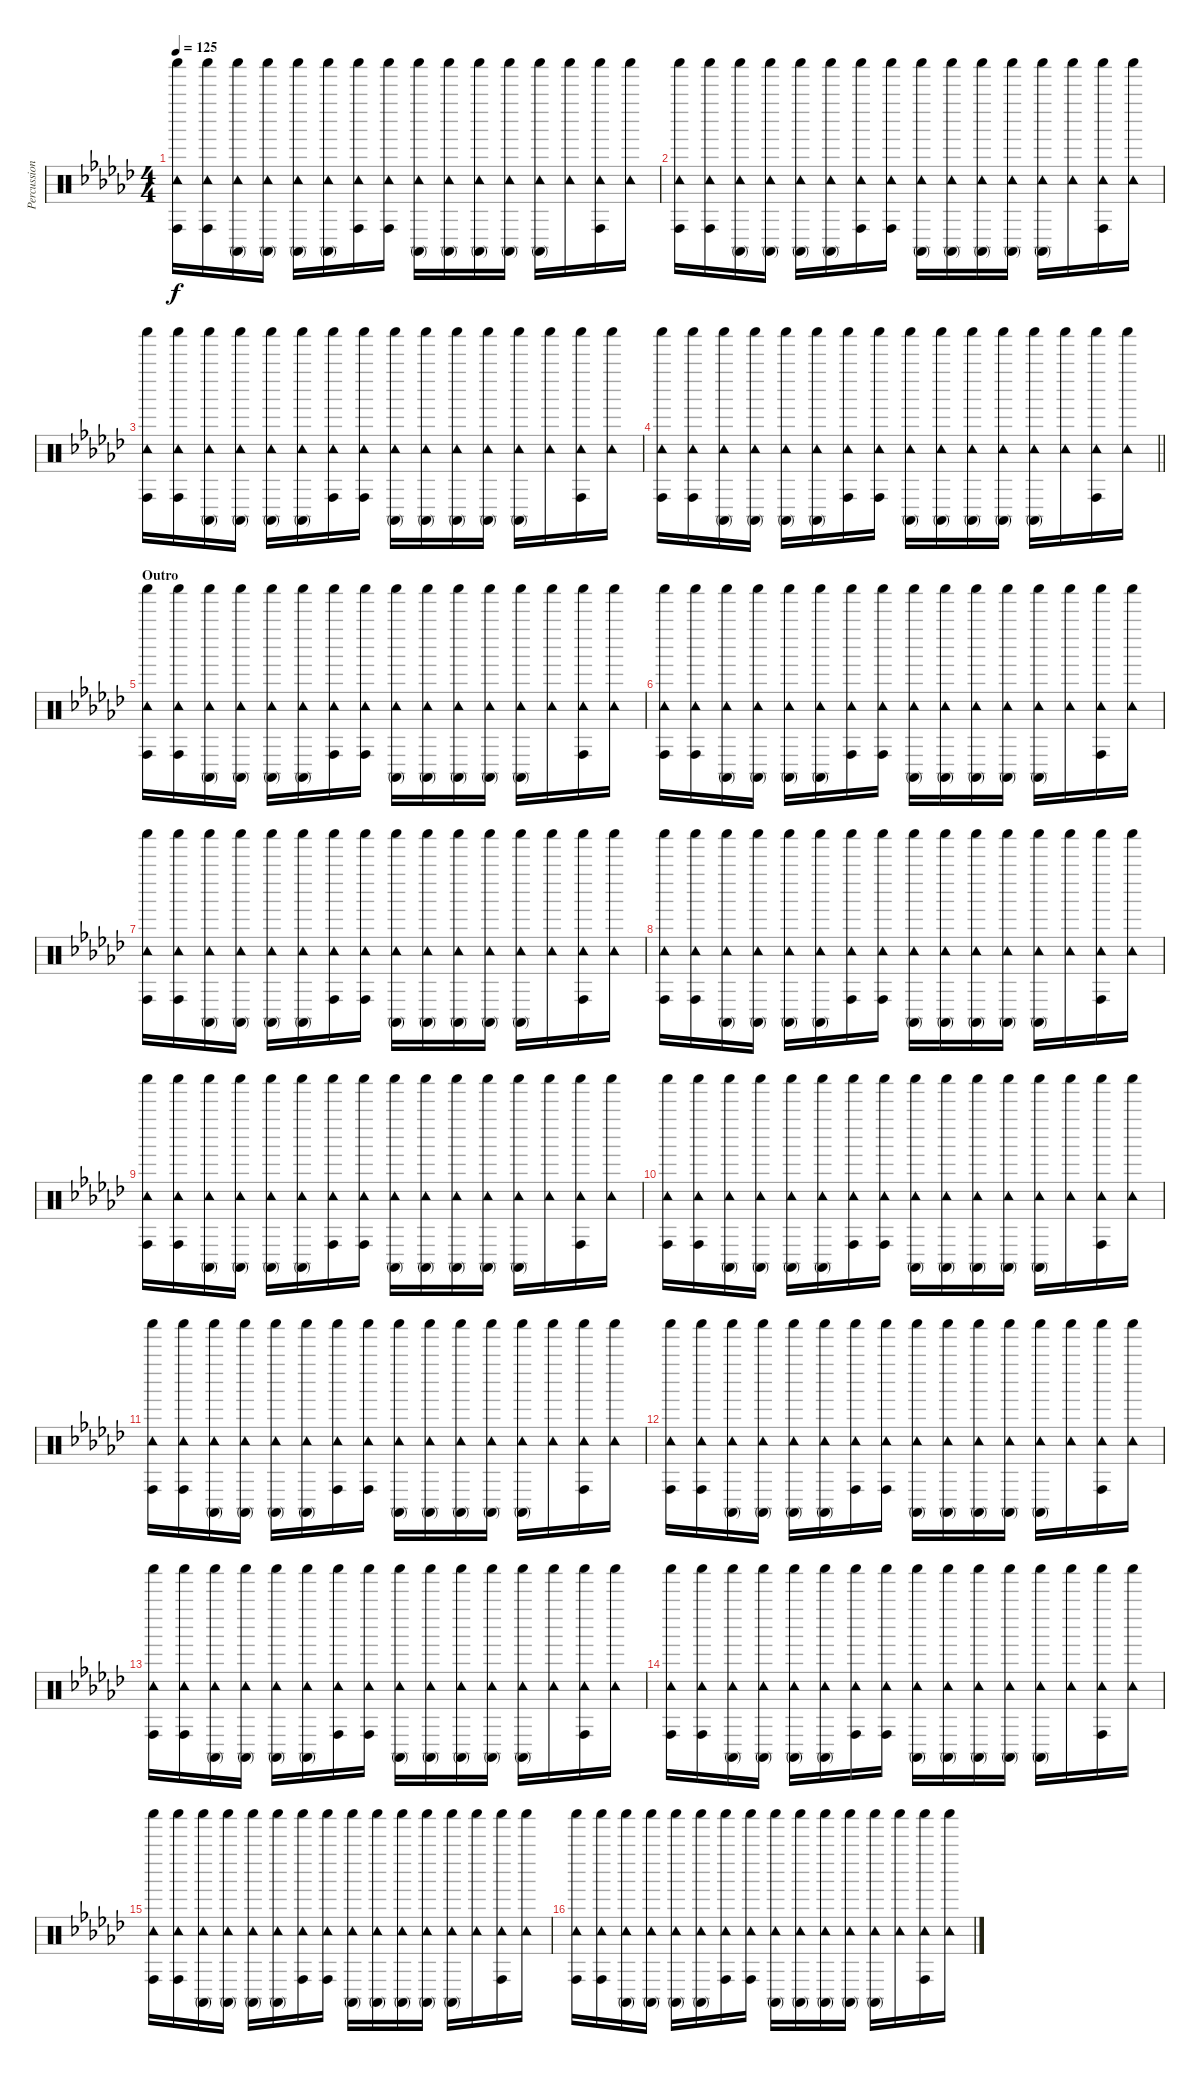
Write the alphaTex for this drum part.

\track ("Percussion" "Percussion") {instrument percussion}
\staff {score}
\articulation defaults
\ts (4 4)
\tempo 125
\clef neutral
\ks gb
("Shaker (hit)" "Tambourine (hit)" "Conga high (hit)").16{dy f} ("Shaker (hit)" "Tambourine (hit)" "Conga high (hit)").16 ("Shaker (hit)" "Tambourine (hit)" "Conga high (mute)").16 ("Shaker (hit)" "Tambourine (hit)" "Conga high (mute)").16 ("Shaker (hit)" "Tambourine (hit)" "Conga high (mute)").16 ("Shaker (hit)" "Tambourine (hit)" "Conga high (mute)").16 ("Shaker (hit)" "Tambourine (hit)" "Conga high (hit)").16 ("Shaker (hit)" "Tambourine (hit)" "Conga high (hit)").16 ("Shaker (hit)" "Tambourine (hit)" "Conga high (mute)").16 ("Shaker (hit)" "Tambourine (hit)" "Conga high (mute)").16 ("Shaker (hit)" "Tambourine (hit)" "Conga high (mute)").16 ("Shaker (hit)" "Tambourine (hit)" "Conga high (mute)").16 ("Shaker (hit)" "Tambourine (hit)" "Conga high (mute)").16 ("Shaker (hit)" "Tambourine (hit)").16 ("Shaker (hit)" "Tambourine (hit)" "Conga high (hit)").16 ("Shaker (hit)" "Tambourine (hit)").16 |
("Shaker (hit)" "Tambourine (hit)" "Conga high (hit)").16 ("Shaker (hit)" "Tambourine (hit)" "Conga high (hit)").16 ("Shaker (hit)" "Tambourine (hit)" "Conga high (mute)").16 ("Shaker (hit)" "Tambourine (hit)" "Conga high (mute)").16 ("Shaker (hit)" "Tambourine (hit)" "Conga high (mute)").16 ("Shaker (hit)" "Tambourine (hit)" "Conga high (mute)").16 ("Shaker (hit)" "Tambourine (hit)" "Conga high (hit)").16 ("Shaker (hit)" "Tambourine (hit)" "Conga high (hit)").16 ("Shaker (hit)" "Tambourine (hit)" "Conga high (mute)").16 ("Shaker (hit)" "Tambourine (hit)" "Conga high (mute)").16 ("Shaker (hit)" "Tambourine (hit)" "Conga high (mute)").16 ("Shaker (hit)" "Tambourine (hit)" "Conga high (mute)").16 ("Shaker (hit)" "Tambourine (hit)" "Conga high (mute)").16 ("Shaker (hit)" "Tambourine (hit)").16 ("Shaker (hit)" "Tambourine (hit)" "Conga high (hit)").16 ("Shaker (hit)" "Tambourine (hit)").16 |
("Shaker (hit)" "Tambourine (hit)" "Conga high (hit)").16 ("Shaker (hit)" "Tambourine (hit)" "Conga high (hit)").16 ("Shaker (hit)" "Tambourine (hit)" "Conga high (mute)").16 ("Shaker (hit)" "Tambourine (hit)" "Conga high (mute)").16 ("Shaker (hit)" "Tambourine (hit)" "Conga high (mute)").16 ("Shaker (hit)" "Tambourine (hit)" "Conga high (mute)").16 ("Shaker (hit)" "Tambourine (hit)" "Conga high (hit)").16 ("Shaker (hit)" "Tambourine (hit)" "Conga high (hit)").16 ("Shaker (hit)" "Tambourine (hit)" "Conga high (mute)").16 ("Shaker (hit)" "Tambourine (hit)" "Conga high (mute)").16 ("Shaker (hit)" "Tambourine (hit)" "Conga high (mute)").16 ("Shaker (hit)" "Tambourine (hit)" "Conga high (mute)").16 ("Shaker (hit)" "Tambourine (hit)" "Conga high (mute)").16 ("Shaker (hit)" "Tambourine (hit)").16 ("Shaker (hit)" "Tambourine (hit)" "Conga high (hit)").16 ("Shaker (hit)" "Tambourine (hit)").16 |
\barLineRight lightlight
("Shaker (hit)" "Tambourine (hit)" "Conga high (hit)").16 ("Shaker (hit)" "Tambourine (hit)" "Conga high (hit)").16 ("Shaker (hit)" "Tambourine (hit)" "Conga high (mute)").16 ("Shaker (hit)" "Tambourine (hit)" "Conga high (mute)").16 ("Shaker (hit)" "Tambourine (hit)" "Conga high (mute)").16 ("Shaker (hit)" "Tambourine (hit)" "Conga high (mute)").16 ("Shaker (hit)" "Tambourine (hit)" "Conga high (hit)").16 ("Shaker (hit)" "Tambourine (hit)" "Conga high (hit)").16 ("Shaker (hit)" "Tambourine (hit)" "Conga high (mute)").16 ("Shaker (hit)" "Tambourine (hit)" "Conga high (mute)").16 ("Shaker (hit)" "Tambourine (hit)" "Conga high (mute)").16 ("Shaker (hit)" "Tambourine (hit)" "Conga high (mute)").16 ("Shaker (hit)" "Tambourine (hit)" "Conga high (mute)").16 ("Shaker (hit)" "Tambourine (hit)").16 ("Shaker (hit)" "Tambourine (hit)" "Conga high (hit)").16 ("Shaker (hit)" "Tambourine (hit)").16 |
\section ("" "Outro")
("Shaker (hit)" "Tambourine (hit)" "Conga high (hit)").16 ("Shaker (hit)" "Tambourine (hit)" "Conga high (hit)").16 ("Shaker (hit)" "Tambourine (hit)" "Conga high (mute)").16 ("Shaker (hit)" "Tambourine (hit)" "Conga high (mute)").16 ("Shaker (hit)" "Tambourine (hit)" "Conga high (mute)").16 ("Shaker (hit)" "Tambourine (hit)" "Conga high (mute)").16 ("Shaker (hit)" "Tambourine (hit)" "Conga high (hit)").16 ("Shaker (hit)" "Tambourine (hit)" "Conga high (hit)").16 ("Shaker (hit)" "Tambourine (hit)" "Conga high (mute)").16 ("Shaker (hit)" "Tambourine (hit)" "Conga high (mute)").16 ("Shaker (hit)" "Tambourine (hit)" "Conga high (mute)").16 ("Shaker (hit)" "Tambourine (hit)" "Conga high (mute)").16 ("Shaker (hit)" "Tambourine (hit)" "Conga high (mute)").16 ("Shaker (hit)" "Tambourine (hit)").16 ("Shaker (hit)" "Tambourine (hit)" "Conga high (hit)").16 ("Shaker (hit)" "Tambourine (hit)").16 |
("Shaker (hit)" "Tambourine (hit)" "Conga high (hit)").16 ("Shaker (hit)" "Tambourine (hit)" "Conga high (hit)").16 ("Shaker (hit)" "Tambourine (hit)" "Conga high (mute)").16 ("Shaker (hit)" "Tambourine (hit)" "Conga high (mute)").16 ("Shaker (hit)" "Tambourine (hit)" "Conga high (mute)").16 ("Shaker (hit)" "Tambourine (hit)" "Conga high (mute)").16 ("Shaker (hit)" "Tambourine (hit)" "Conga high (hit)").16 ("Shaker (hit)" "Tambourine (hit)" "Conga high (hit)").16 ("Shaker (hit)" "Tambourine (hit)" "Conga high (mute)").16 ("Shaker (hit)" "Tambourine (hit)" "Conga high (mute)").16 ("Shaker (hit)" "Tambourine (hit)" "Conga high (mute)").16 ("Shaker (hit)" "Tambourine (hit)" "Conga high (mute)").16 ("Shaker (hit)" "Tambourine (hit)" "Conga high (mute)").16 ("Shaker (hit)" "Tambourine (hit)").16 ("Shaker (hit)" "Tambourine (hit)" "Conga high (hit)").16 ("Shaker (hit)" "Tambourine (hit)").16 |
("Shaker (hit)" "Tambourine (hit)" "Conga high (hit)").16 ("Shaker (hit)" "Tambourine (hit)" "Conga high (hit)").16 ("Shaker (hit)" "Tambourine (hit)" "Conga high (mute)").16 ("Shaker (hit)" "Tambourine (hit)" "Conga high (mute)").16 ("Shaker (hit)" "Tambourine (hit)" "Conga high (mute)").16 ("Shaker (hit)" "Tambourine (hit)" "Conga high (mute)").16 ("Shaker (hit)" "Tambourine (hit)" "Conga high (hit)").16 ("Shaker (hit)" "Tambourine (hit)" "Conga high (hit)").16 ("Shaker (hit)" "Tambourine (hit)" "Conga high (mute)").16 ("Shaker (hit)" "Tambourine (hit)" "Conga high (mute)").16 ("Shaker (hit)" "Tambourine (hit)" "Conga high (mute)").16 ("Shaker (hit)" "Tambourine (hit)" "Conga high (mute)").16 ("Shaker (hit)" "Tambourine (hit)" "Conga high (mute)").16 ("Shaker (hit)" "Tambourine (hit)").16 ("Shaker (hit)" "Tambourine (hit)" "Conga high (hit)").16 ("Shaker (hit)" "Tambourine (hit)").16 |
("Shaker (hit)" "Tambourine (hit)" "Conga high (hit)").16 ("Shaker (hit)" "Tambourine (hit)" "Conga high (hit)").16 ("Shaker (hit)" "Tambourine (hit)" "Conga high (mute)").16 ("Shaker (hit)" "Tambourine (hit)" "Conga high (mute)").16 ("Shaker (hit)" "Tambourine (hit)" "Conga high (mute)").16 ("Shaker (hit)" "Tambourine (hit)" "Conga high (mute)").16 ("Shaker (hit)" "Tambourine (hit)" "Conga high (hit)").16 ("Shaker (hit)" "Tambourine (hit)" "Conga high (hit)").16 ("Shaker (hit)" "Tambourine (hit)" "Conga high (mute)").16 ("Shaker (hit)" "Tambourine (hit)" "Conga high (mute)").16 ("Shaker (hit)" "Tambourine (hit)" "Conga high (mute)").16 ("Shaker (hit)" "Tambourine (hit)" "Conga high (mute)").16 ("Shaker (hit)" "Tambourine (hit)" "Conga high (mute)").16 ("Shaker (hit)" "Tambourine (hit)").16 ("Shaker (hit)" "Tambourine (hit)" "Conga high (hit)").16 ("Shaker (hit)" "Tambourine (hit)").16 |
("Shaker (hit)" "Tambourine (hit)" "Conga high (hit)").16 ("Shaker (hit)" "Tambourine (hit)" "Conga high (hit)").16 ("Shaker (hit)" "Tambourine (hit)" "Conga high (mute)").16 ("Shaker (hit)" "Tambourine (hit)" "Conga high (mute)").16 ("Shaker (hit)" "Tambourine (hit)" "Conga high (mute)").16 ("Shaker (hit)" "Tambourine (hit)" "Conga high (mute)").16 ("Shaker (hit)" "Tambourine (hit)" "Conga high (hit)").16 ("Shaker (hit)" "Tambourine (hit)" "Conga high (hit)").16 ("Shaker (hit)" "Tambourine (hit)" "Conga high (mute)").16 ("Shaker (hit)" "Tambourine (hit)" "Conga high (mute)").16 ("Shaker (hit)" "Tambourine (hit)" "Conga high (mute)").16 ("Shaker (hit)" "Tambourine (hit)" "Conga high (mute)").16 ("Shaker (hit)" "Tambourine (hit)" "Conga high (mute)").16 ("Shaker (hit)" "Tambourine (hit)").16 ("Shaker (hit)" "Tambourine (hit)" "Conga high (hit)").16 ("Shaker (hit)" "Tambourine (hit)").16 |
("Shaker (hit)" "Tambourine (hit)" "Conga high (hit)").16 ("Shaker (hit)" "Tambourine (hit)" "Conga high (hit)").16 ("Shaker (hit)" "Tambourine (hit)" "Conga high (mute)").16 ("Shaker (hit)" "Tambourine (hit)" "Conga high (mute)").16 ("Shaker (hit)" "Tambourine (hit)" "Conga high (mute)").16 ("Shaker (hit)" "Tambourine (hit)" "Conga high (mute)").16 ("Shaker (hit)" "Tambourine (hit)" "Conga high (hit)").16 ("Shaker (hit)" "Tambourine (hit)" "Conga high (hit)").16 ("Shaker (hit)" "Tambourine (hit)" "Conga high (mute)").16 ("Shaker (hit)" "Tambourine (hit)" "Conga high (mute)").16 ("Shaker (hit)" "Tambourine (hit)" "Conga high (mute)").16 ("Shaker (hit)" "Tambourine (hit)" "Conga high (mute)").16 ("Shaker (hit)" "Tambourine (hit)" "Conga high (mute)").16 ("Shaker (hit)" "Tambourine (hit)").16 ("Shaker (hit)" "Tambourine (hit)" "Conga high (hit)").16 ("Shaker (hit)" "Tambourine (hit)").16 |
("Shaker (hit)" "Tambourine (hit)" "Conga high (hit)").16 ("Shaker (hit)" "Tambourine (hit)" "Conga high (hit)").16 ("Shaker (hit)" "Tambourine (hit)" "Conga high (mute)").16 ("Shaker (hit)" "Tambourine (hit)" "Conga high (mute)").16 ("Shaker (hit)" "Tambourine (hit)" "Conga high (mute)").16 ("Shaker (hit)" "Tambourine (hit)" "Conga high (mute)").16 ("Shaker (hit)" "Tambourine (hit)" "Conga high (hit)").16 ("Shaker (hit)" "Tambourine (hit)" "Conga high (hit)").16 ("Shaker (hit)" "Tambourine (hit)" "Conga high (mute)").16 ("Shaker (hit)" "Tambourine (hit)" "Conga high (mute)").16 ("Shaker (hit)" "Tambourine (hit)" "Conga high (mute)").16 ("Shaker (hit)" "Tambourine (hit)" "Conga high (mute)").16 ("Shaker (hit)" "Tambourine (hit)" "Conga high (mute)").16 ("Shaker (hit)" "Tambourine (hit)").16 ("Shaker (hit)" "Tambourine (hit)" "Conga high (hit)").16 ("Shaker (hit)" "Tambourine (hit)").16 |
("Shaker (hit)" "Tambourine (hit)" "Conga high (hit)").16 ("Shaker (hit)" "Tambourine (hit)" "Conga high (hit)").16 ("Shaker (hit)" "Tambourine (hit)" "Conga high (mute)").16 ("Shaker (hit)" "Tambourine (hit)" "Conga high (mute)").16 ("Shaker (hit)" "Tambourine (hit)" "Conga high (mute)").16 ("Shaker (hit)" "Tambourine (hit)" "Conga high (mute)").16 ("Shaker (hit)" "Tambourine (hit)" "Conga high (hit)").16 ("Shaker (hit)" "Tambourine (hit)" "Conga high (hit)").16 ("Shaker (hit)" "Tambourine (hit)" "Conga high (mute)").16 ("Shaker (hit)" "Tambourine (hit)" "Conga high (mute)").16 ("Shaker (hit)" "Tambourine (hit)" "Conga high (mute)").16 ("Shaker (hit)" "Tambourine (hit)" "Conga high (mute)").16 ("Shaker (hit)" "Tambourine (hit)" "Conga high (mute)").16 ("Shaker (hit)" "Tambourine (hit)").16 ("Shaker (hit)" "Tambourine (hit)" "Conga high (hit)").16 ("Shaker (hit)" "Tambourine (hit)").16 |
("Shaker (hit)" "Tambourine (hit)" "Conga high (hit)").16 ("Shaker (hit)" "Tambourine (hit)" "Conga high (hit)").16 ("Shaker (hit)" "Tambourine (hit)" "Conga high (mute)").16 ("Shaker (hit)" "Tambourine (hit)" "Conga high (mute)").16 ("Shaker (hit)" "Tambourine (hit)" "Conga high (mute)").16 ("Shaker (hit)" "Tambourine (hit)" "Conga high (mute)").16 ("Shaker (hit)" "Tambourine (hit)" "Conga high (hit)").16 ("Shaker (hit)" "Tambourine (hit)" "Conga high (hit)").16 ("Shaker (hit)" "Tambourine (hit)" "Conga high (mute)").16 ("Shaker (hit)" "Tambourine (hit)" "Conga high (mute)").16 ("Shaker (hit)" "Tambourine (hit)" "Conga high (mute)").16 ("Shaker (hit)" "Tambourine (hit)" "Conga high (mute)").16 ("Shaker (hit)" "Tambourine (hit)" "Conga high (mute)").16 ("Shaker (hit)" "Tambourine (hit)").16 ("Shaker (hit)" "Tambourine (hit)" "Conga high (hit)").16 ("Shaker (hit)" "Tambourine (hit)").16 |
("Shaker (hit)" "Tambourine (hit)" "Conga high (hit)").16 ("Shaker (hit)" "Tambourine (hit)" "Conga high (hit)").16 ("Shaker (hit)" "Tambourine (hit)" "Conga high (mute)").16 ("Shaker (hit)" "Tambourine (hit)" "Conga high (mute)").16 ("Shaker (hit)" "Tambourine (hit)" "Conga high (mute)").16 ("Shaker (hit)" "Tambourine (hit)" "Conga high (mute)").16 ("Shaker (hit)" "Tambourine (hit)" "Conga high (hit)").16 ("Shaker (hit)" "Tambourine (hit)" "Conga high (hit)").16 ("Shaker (hit)" "Tambourine (hit)" "Conga high (mute)").16 ("Shaker (hit)" "Tambourine (hit)" "Conga high (mute)").16 ("Shaker (hit)" "Tambourine (hit)" "Conga high (mute)").16 ("Shaker (hit)" "Tambourine (hit)" "Conga high (mute)").16 ("Shaker (hit)" "Tambourine (hit)" "Conga high (mute)").16 ("Shaker (hit)" "Tambourine (hit)").16 ("Shaker (hit)" "Tambourine (hit)" "Conga high (hit)").16 ("Shaker (hit)" "Tambourine (hit)").16 |
("Shaker (hit)" "Tambourine (hit)" "Conga high (hit)").16 ("Shaker (hit)" "Tambourine (hit)" "Conga high (hit)").16 ("Shaker (hit)" "Tambourine (hit)" "Conga high (mute)").16 ("Shaker (hit)" "Tambourine (hit)" "Conga high (mute)").16 ("Shaker (hit)" "Tambourine (hit)" "Conga high (mute)").16 ("Shaker (hit)" "Tambourine (hit)" "Conga high (mute)").16 ("Shaker (hit)" "Tambourine (hit)" "Conga high (hit)").16 ("Shaker (hit)" "Tambourine (hit)" "Conga high (hit)").16 ("Shaker (hit)" "Tambourine (hit)" "Conga high (mute)").16 ("Shaker (hit)" "Tambourine (hit)" "Conga high (mute)").16 ("Shaker (hit)" "Tambourine (hit)" "Conga high (mute)").16 ("Shaker (hit)" "Tambourine (hit)" "Conga high (mute)").16 ("Shaker (hit)" "Tambourine (hit)" "Conga high (mute)").16 ("Shaker (hit)" "Tambourine (hit)").16 ("Shaker (hit)" "Tambourine (hit)" "Conga high (hit)").16 ("Shaker (hit)" "Tambourine (hit)").16 |
("Shaker (hit)" "Tambourine (hit)" "Conga high (hit)").16 ("Shaker (hit)" "Tambourine (hit)" "Conga high (hit)").16 ("Shaker (hit)" "Tambourine (hit)" "Conga high (mute)").16 ("Shaker (hit)" "Tambourine (hit)" "Conga high (mute)").16 ("Shaker (hit)" "Tambourine (hit)" "Conga high (mute)").16 ("Shaker (hit)" "Tambourine (hit)" "Conga high (mute)").16 ("Shaker (hit)" "Tambourine (hit)" "Conga high (hit)").16 ("Shaker (hit)" "Tambourine (hit)" "Conga high (hit)").16 ("Shaker (hit)" "Tambourine (hit)" "Conga high (mute)").16 ("Shaker (hit)" "Tambourine (hit)" "Conga high (mute)").16 ("Shaker (hit)" "Tambourine (hit)" "Conga high (mute)").16 ("Shaker (hit)" "Tambourine (hit)" "Conga high (mute)").16 ("Shaker (hit)" "Tambourine (hit)" "Conga high (mute)").16 ("Shaker (hit)" "Tambourine (hit)").16 ("Shaker (hit)" "Tambourine (hit)" "Conga high (hit)").16 ("Shaker (hit)" "Tambourine (hit)").16
